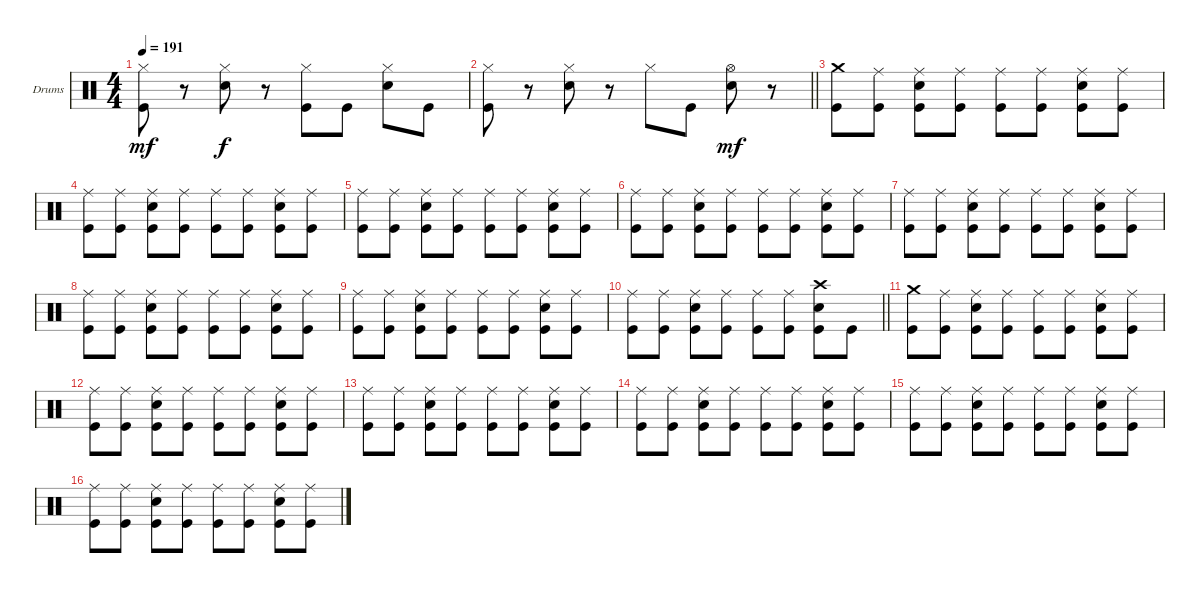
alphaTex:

\bracketExtendMode groupsimilarinstruments
\firstSystemTrackNameOrientation horizontal
\otherSystemsTrackNameOrientation horizontal
\track ("Drumkit" "Drums") {instrument percussion}
\staff {score}
\articulation defaults
\ts (4 4)
\tempo 191
\clef neutral
\ks c
("Hi-Hat (closed)" "Kick (hit)").8{dy mf} r.8 ("Hi-Hat (closed)" "Snare (hit) 2").8{dy f} r.8 ("Hi-Hat (closed)" "Kick (hit)").8 "Kick (hit)".8 ("Hi-Hat (closed)" "Snare (hit) 2").8 "Kick (hit)".8 |
\barLineRight lightlight
("Hi-Hat (closed)" "Kick (hit)").8 r.8 ("Hi-Hat (closed)" "Snare (hit) 2").8 r.8 "Hi-Hat (closed)".8 "Kick (hit)".8 ("Hi-Hat (open)" "Snare (hit) 2").8{dy mf} r.8 |
\section ("" "")
("Crash medium (hit)" "Kick (hit)").8 ("Ride (middle)" "Kick (hit)").8 ("Ride (middle)" "Snare (hit) 2" "Kick (hit)").8 ("Ride (middle)" "Kick (hit)").8 ("Ride (middle)" "Kick (hit)").8 ("Ride (middle)" "Kick (hit)").8 ("Ride (middle)" "Snare (hit) 2" "Kick (hit)").8 ("Ride (middle)" "Kick (hit)").8 |
("Ride (middle)" "Kick (hit)").8 ("Ride (middle)" "Kick (hit)").8 ("Ride (middle)" "Snare (hit) 2" "Kick (hit)").8 ("Ride (middle)" "Kick (hit)").8 ("Ride (middle)" "Kick (hit)").8 ("Ride (middle)" "Kick (hit)").8 ("Ride (middle)" "Snare (hit) 2" "Kick (hit)").8 ("Ride (middle)" "Kick (hit)").8 |
("Ride (middle)" "Kick (hit)").8 ("Ride (middle)" "Kick (hit)").8 ("Ride (middle)" "Snare (hit) 2" "Kick (hit)").8 ("Ride (middle)" "Kick (hit)").8 ("Ride (middle)" "Kick (hit)").8 ("Ride (middle)" "Kick (hit)").8 ("Ride (middle)" "Snare (hit) 2" "Kick (hit)").8 ("Ride (middle)" "Kick (hit)").8 |
("Ride (middle)" "Kick (hit)").8 ("Ride (middle)" "Kick (hit)").8 ("Ride (middle)" "Snare (hit) 2" "Kick (hit)").8 ("Ride (middle)" "Kick (hit)").8 ("Ride (middle)" "Kick (hit)").8 ("Ride (middle)" "Kick (hit)").8 ("Ride (middle)" "Snare (hit) 2" "Kick (hit)").8 ("Ride (middle)" "Kick (hit)").8 |
("Ride (middle)" "Kick (hit)").8 ("Ride (middle)" "Kick (hit)").8 ("Ride (middle)" "Snare (hit) 2" "Kick (hit)").8 ("Ride (middle)" "Kick (hit)").8 ("Ride (middle)" "Kick (hit)").8 ("Ride (middle)" "Kick (hit)").8 ("Ride (middle)" "Snare (hit) 2" "Kick (hit)").8 ("Ride (middle)" "Kick (hit)").8 |
("Ride (middle)" "Kick (hit)").8 ("Ride (middle)" "Kick (hit)").8 ("Ride (middle)" "Snare (hit) 2" "Kick (hit)").8 ("Ride (middle)" "Kick (hit)").8 ("Ride (middle)" "Kick (hit)").8 ("Ride (middle)" "Kick (hit)").8 ("Ride (middle)" "Snare (hit) 2" "Kick (hit)").8 ("Ride (middle)" "Kick (hit)").8 |
("Ride (middle)" "Kick (hit)").8 ("Ride (middle)" "Kick (hit)").8 ("Ride (middle)" "Snare (hit) 2" "Kick (hit)").8 ("Ride (middle)" "Kick (hit)").8 ("Ride (middle)" "Kick (hit)").8 ("Ride (middle)" "Kick (hit)").8 ("Ride (middle)" "Snare (hit) 2" "Kick (hit)").8 ("Ride (middle)" "Kick (hit)").8 |
\barLineRight lightlight
("Ride (middle)" "Kick (hit)").8 ("Ride (middle)" "Kick (hit)").8 ("Ride (middle)" "Snare (hit) 2" "Kick (hit)").8 ("Ride (middle)" "Kick (hit)").8 ("Ride (middle)" "Kick (hit)").8 ("Ride (middle)" "Kick (hit)").8 ("Crash high (hit)" "Snare (hit) 2" "Kick (hit)").8 "Kick (hit)".8 |
\section ("" "")
("Crash medium (hit)" "Kick (hit)").8 ("Ride (middle)" "Kick (hit)").8 ("Ride (middle)" "Snare (hit) 2" "Kick (hit)").8 ("Ride (middle)" "Kick (hit)").8 ("Ride (middle)" "Kick (hit)").8 ("Ride (middle)" "Kick (hit)").8 ("Ride (middle)" "Snare (hit) 2" "Kick (hit)").8 ("Ride (middle)" "Kick (hit)").8 |
("Ride (middle)" "Kick (hit)").8 ("Ride (middle)" "Kick (hit)").8 ("Ride (middle)" "Snare (hit) 2" "Kick (hit)").8 ("Ride (middle)" "Kick (hit)").8 ("Ride (middle)" "Kick (hit)").8 ("Ride (middle)" "Kick (hit)").8 ("Ride (middle)" "Snare (hit) 2" "Kick (hit)").8 ("Ride (middle)" "Kick (hit)").8 |
("Ride (middle)" "Kick (hit)").8 ("Ride (middle)" "Kick (hit)").8 ("Ride (middle)" "Snare (hit) 2" "Kick (hit)").8 ("Ride (middle)" "Kick (hit)").8 ("Ride (middle)" "Kick (hit)").8 ("Ride (middle)" "Kick (hit)").8 ("Ride (middle)" "Snare (hit) 2" "Kick (hit)").8 ("Ride (middle)" "Kick (hit)").8 |
("Ride (middle)" "Kick (hit)").8 ("Ride (middle)" "Kick (hit)").8 ("Ride (middle)" "Snare (hit) 2" "Kick (hit)").8 ("Ride (middle)" "Kick (hit)").8 ("Ride (middle)" "Kick (hit)").8 ("Ride (middle)" "Kick (hit)").8 ("Ride (middle)" "Snare (hit) 2" "Kick (hit)").8 ("Ride (middle)" "Kick (hit)").8 |
("Ride (middle)" "Kick (hit)").8 ("Ride (middle)" "Kick (hit)").8 ("Ride (middle)" "Snare (hit) 2" "Kick (hit)").8 ("Ride (middle)" "Kick (hit)").8 ("Ride (middle)" "Kick (hit)").8 ("Ride (middle)" "Kick (hit)").8 ("Ride (middle)" "Snare (hit) 2" "Kick (hit)").8 ("Ride (middle)" "Kick (hit)").8 |
("Ride (middle)" "Kick (hit)").8 ("Ride (middle)" "Kick (hit)").8 ("Ride (middle)" "Snare (hit) 2" "Kick (hit)").8 ("Ride (middle)" "Kick (hit)").8 ("Ride (middle)" "Kick (hit)").8 ("Ride (middle)" "Kick (hit)").8 ("Ride (middle)" "Snare (hit) 2" "Kick (hit)").8 ("Ride (middle)" "Kick (hit)").8
